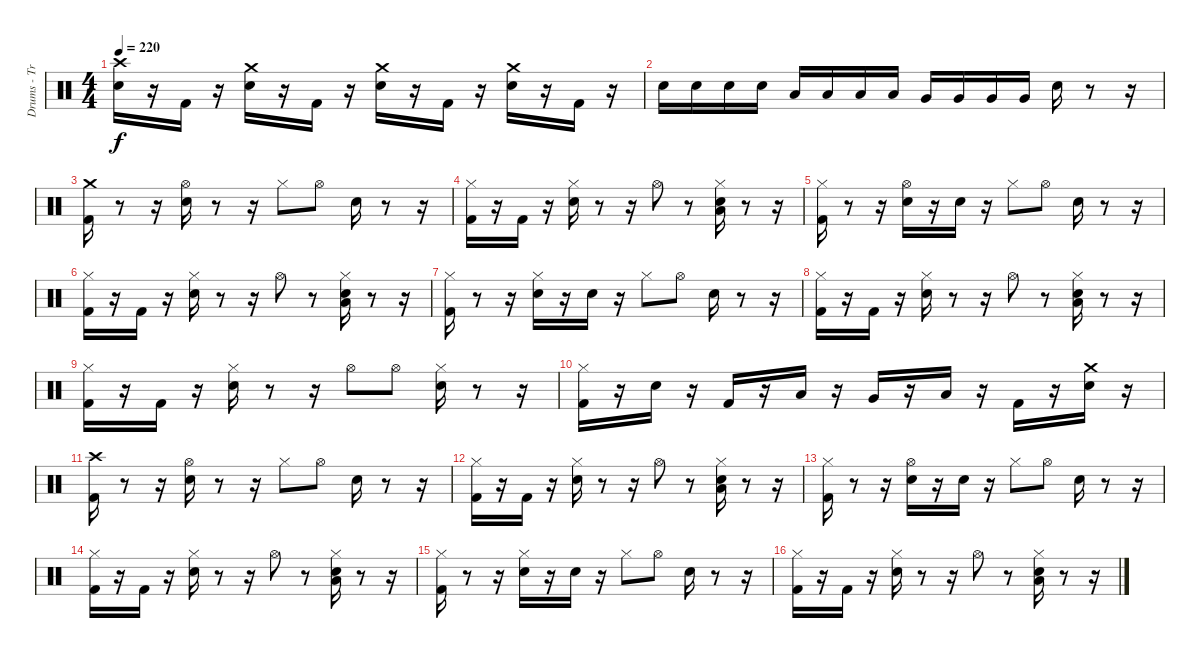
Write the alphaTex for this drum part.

\track ("Drums - Travis Barker" "Drums - Tr") {instrument percussion}
\staff {score}
\articulation defaults
\ts (4 4)
\tempo 220
\clef neutral
\ks c
("Electric Snare (hit)" "Crash high (hit)").16{dy f} r.16 "Kick (hit) 2".16 r.16 ("Electric Snare (hit)" "Crash medium (hit)").16 r.16 "Kick (hit) 2".16 r.16 ("Electric Snare (hit)" "Crash medium (hit)").16 r.16 "Kick (hit) 2".16 r.16 ("Electric Snare (hit)" "Crash medium (hit)").16 r.16 "Kick (hit) 2".16 r.16 |
"Electric Snare (hit)".16 "Electric Snare (hit)".16 "Electric Snare (hit)".16 "Electric Snare (hit)".16 "Low Tom (hit)".16 "Low Tom (hit)".16 "Low Tom (hit)".16 "Low Tom (hit)".16 "Very Low Tom (hit)".16 "Very Low Tom (hit)".16 "Very Low Tom (hit)".16 "Very Low Tom (hit)".16 "Electric Snare (hit)".16 r.8 r.16 |
("Kick (hit) 2" "Crash medium (hit)").16 r.8 r.16 ("Electric Snare (hit)" "Hi-Hat (open)").16 r.8 r.16 "Hi-Hat (closed)".8 "Hi-Hat (open)".8 "Electric Snare (hit)".16 r.8 r.16 |
("Hi-Hat (closed)" "Kick (hit) 2").16 r.16 "Kick (hit) 2".16 r.16 ("Electric Snare (hit)" "Hi-Hat (closed)").16 r.8 r.16 "Hi-Hat (open)".8 r.8 ("Electric Snare (hit)" "Low Tom (hit)" "Hi-Hat (closed)").16 r.8 r.16 |
("Kick (hit) 2" "Hi-Hat (closed)").16 r.8 r.16 ("Electric Snare (hit)" "Hi-Hat (open)").16 r.16 "Electric Snare (hit)".16 r.16 "Hi-Hat (closed)".8 "Hi-Hat (open)".8 "Electric Snare (hit)".16 r.8 r.16 |
("Hi-Hat (closed)" "Kick (hit) 2").16 r.16 "Kick (hit) 2".16 r.16 ("Electric Snare (hit)" "Hi-Hat (closed)").16 r.8 r.16 "Hi-Hat (open)".8 r.8 ("Electric Snare (hit)" "Low Tom (hit)" "Hi-Hat (closed)").16 r.8 r.16 |
("Kick (hit) 2" "Hi-Hat (closed)").16 r.8 r.16 ("Electric Snare (hit)" "Hi-Hat (closed)").16 r.16 "Electric Snare (hit)".16 r.16 "Hi-Hat (closed)".8 "Hi-Hat (open)".8 "Electric Snare (hit)".16 r.8 r.16 |
("Hi-Hat (closed)" "Kick (hit) 2").16 r.16 "Kick (hit) 2".16 r.16 ("Electric Snare (hit)" "Hi-Hat (closed)").16 r.8 r.16 "Hi-Hat (open)".8 r.8 ("Electric Snare (hit)" "Low Tom (hit)" "Hi-Hat (closed)").16 r.8 r.16 |
("Kick (hit) 2" "Hi-Hat (closed)").16 r.16 "Kick (hit) 2".16 r.16 ("Electric Snare (hit)" "Hi-Hat (closed)").16 r.8 r.16 "Hi-Hat (open)".8 "Hi-Hat (open)".8 ("Electric Snare (hit)" "Hi-Hat (closed)").16 r.8 r.16 |
("Hi-Hat (closed)" "Kick (hit) 2").16 r.16 "Electric Snare (hit)".16 r.16 "Kick (hit) 2".16 r.16 "Low Tom (hit)".16 r.16 "Very Low Tom (hit)".16 r.16 "Low Floor Tom (hit)".16 r.16 "Kick (hit) 2".16 r.16 ("Crash medium (hit)" "Electric Snare (hit)").16 r.16 |
("Kick (hit) 2" "Crash high (hit)").16 r.8 r.16 ("Electric Snare (hit)" "Hi-Hat (open)").16 r.8 r.16 "Hi-Hat (closed)".8 "Hi-Hat (open)".8 "Electric Snare (hit)".16 r.8 r.16 |
("Hi-Hat (closed)" "Kick (hit) 2").16 r.16 "Kick (hit) 2".16 r.16 ("Electric Snare (hit)" "Hi-Hat (closed)").16 r.8 r.16 "Hi-Hat (open)".8 r.8 ("Electric Snare (hit)" "Low Tom (hit)" "Hi-Hat (closed)").16 r.8 r.16 |
("Kick (hit) 2" "Hi-Hat (closed)").16 r.8 r.16 ("Electric Snare (hit)" "Hi-Hat (open)").16 r.16 "Electric Snare (hit)".16 r.16 "Hi-Hat (closed)".8 "Hi-Hat (open)".8 "Electric Snare (hit)".16 r.8 r.16 |
("Hi-Hat (closed)" "Kick (hit) 2").16 r.16 "Kick (hit) 2".16 r.16 ("Electric Snare (hit)" "Hi-Hat (closed)").16 r.8 r.16 "Hi-Hat (open)".8 r.8 ("Electric Snare (hit)" "Low Tom (hit)" "Hi-Hat (closed)").16 r.8 r.16 |
("Kick (hit) 2" "Hi-Hat (closed)").16 r.8 r.16 ("Electric Snare (hit)" "Hi-Hat (closed)").16 r.16 "Electric Snare (hit)".16 r.16 "Hi-Hat (closed)".8 "Hi-Hat (open)".8 "Electric Snare (hit)".16 r.8 r.16 |
("Hi-Hat (closed)" "Kick (hit) 2").16 r.16 "Kick (hit) 2".16 r.16 ("Electric Snare (hit)" "Hi-Hat (closed)").16 r.8 r.16 "Hi-Hat (open)".8 r.8 ("Electric Snare (hit)" "Low Tom (hit)" "Hi-Hat (closed)").16 r.8 r.16
